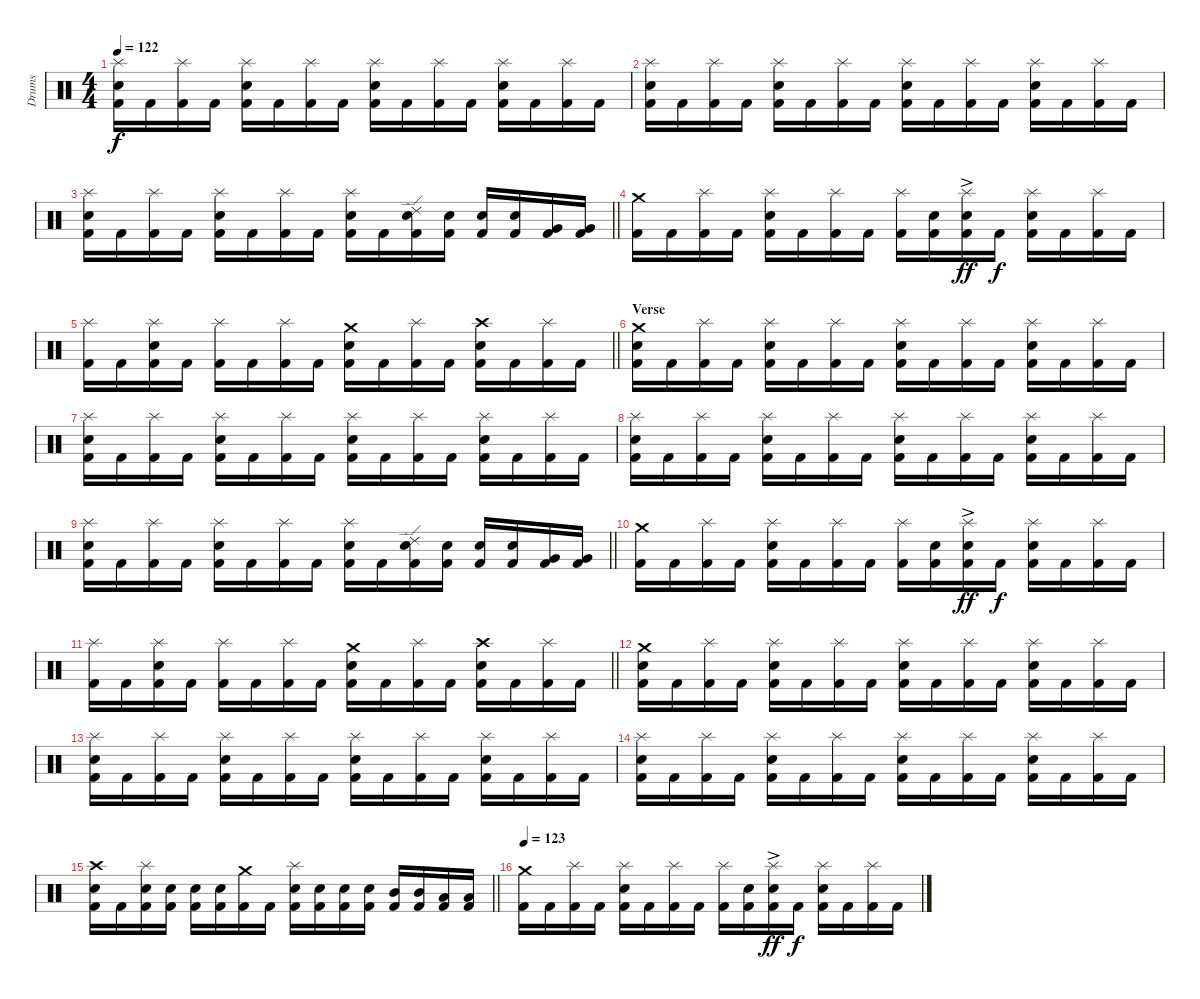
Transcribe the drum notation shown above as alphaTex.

\track ("Drums" "Drums") {instrument percussion}
\staff {score}
\articulation defaults
\ts (4 4)
\tempo 122
\clef neutral
\ks c
("Kick (hit) 2" "Snare (hit) 2" "Splash (hit)").16{dy f} "Kick (hit) 2".16 ("Kick (hit) 2" "Splash (hit)").16 "Kick (hit) 2".16 ("Kick (hit) 2" "Snare (hit) 2" "Splash (hit)").16 "Kick (hit) 2".16 ("Kick (hit) 2" "Splash (hit)").16 "Kick (hit) 2".16 ("Kick (hit) 2" "Snare (hit) 2" "Splash (hit)").16 "Kick (hit) 2".16 ("Kick (hit) 2" "Splash (hit)").16 "Kick (hit) 2".16 ("Kick (hit) 2" "Snare (hit) 2" "Splash (hit)").16 "Kick (hit) 2".16 ("Kick (hit) 2" "Splash (hit)").16 "Kick (hit) 2".16 |
("Kick (hit) 2" "Snare (hit) 2" "Splash (hit)").16 "Kick (hit) 2".16 ("Kick (hit) 2" "Splash (hit)").16 "Kick (hit) 2".16 ("Kick (hit) 2" "Snare (hit) 2" "Splash (hit)").16 "Kick (hit) 2".16 ("Kick (hit) 2" "Splash (hit)").16 "Kick (hit) 2".16 ("Kick (hit) 2" "Snare (hit) 2" "Splash (hit)").16 "Kick (hit) 2".16 ("Kick (hit) 2" "Splash (hit)").16 "Kick (hit) 2".16 ("Kick (hit) 2" "Snare (hit) 2" "Splash (hit)").16 "Kick (hit) 2".16 ("Kick (hit) 2" "Splash (hit)").16 "Kick (hit) 2".16 |
\barLineRight lightlight
("Kick (hit) 2" "Snare (hit) 2" "Splash (hit)").16 "Kick (hit) 2".16 ("Kick (hit) 2" "Splash (hit)").16 "Kick (hit) 2".16 ("Kick (hit) 2" "Snare (hit) 2" "Splash (hit)").16 "Kick (hit) 2".16 ("Kick (hit) 2" "Splash (hit)").16 "Kick (hit) 2".16 ("Kick (hit) 2" "Snare (hit) 2" "Splash (hit)").16 "Kick (hit) 2".16 ("Kick (hit) 2" "Snare (hit) 2" "Ride (edge) 2").16 ("Kick (hit) 2" "Snare (hit) 2").16 ("Kick (hit) 2" "Snare (hit) 2").16 ("Kick (hit) 2" "Snare (hit) 2").16 ("Kick (hit) 2" "Very Low Tom (hit)").16 ("Kick (hit) 2" "Very Low Tom (hit)").16 |
\section ("" "")
("Kick (hit) 2" "Crash medium (hit)").16 "Kick (hit) 2".16 ("Kick (hit) 2" "Splash (hit)").16 "Kick (hit) 2".16 ("Kick (hit) 2" "Snare (hit) 2" "Splash (hit)").16 "Kick (hit) 2".16 ("Kick (hit) 2" "Splash (hit)").16 "Kick (hit) 2".16 ("Kick (hit) 2" "Splash (hit)").16 ("Kick (hit) 2" "Snare (hit) 2").16 ("Kick (hit) 2" "Snare (hit) 2"{ac} "Splash (hit)").16{dy ff} "Kick (hit) 2".16{dy f} ("Kick (hit) 2" "Snare (hit) 2" "Splash (hit)").16 "Kick (hit) 2".16 ("Kick (hit) 2" "Splash (hit)").16 "Kick (hit) 2".16 |
\barLineRight lightlight
("Kick (hit) 2" "Splash (hit)").16 "Kick (hit) 2".16 ("Kick (hit) 2" "Snare (hit) 2" "Splash (hit)").16 "Kick (hit) 2".16 ("Kick (hit) 2" "Splash (hit)").16 "Kick (hit) 2".16 ("Kick (hit) 2" "Splash (hit)").16 "Kick (hit) 2".16 ("Kick (hit) 2" "Snare (hit) 2" "Crash medium (hit)").16 "Kick (hit) 2".16 ("Kick (hit) 2" "Splash (hit)").16 "Kick (hit) 2".16 ("Kick (hit) 2" "Snare (hit) 2" "Crash high (hit)").16 "Kick (hit) 2".16 ("Kick (hit) 2" "Splash (hit)").16 "Kick (hit) 2".16 |
\section ("" "Verse")
("Kick (hit) 2" "Snare (hit) 2" "Crash medium (hit)").16 "Kick (hit) 2".16 ("Kick (hit) 2" "Splash (hit)").16 "Kick (hit) 2".16 ("Kick (hit) 2" "Snare (hit) 2" "Splash (hit)").16 "Kick (hit) 2".16 ("Kick (hit) 2" "Splash (hit)").16 "Kick (hit) 2".16 ("Kick (hit) 2" "Snare (hit) 2" "Splash (hit)").16 "Kick (hit) 2".16 ("Kick (hit) 2" "Splash (hit)").16 "Kick (hit) 2".16 ("Kick (hit) 2" "Snare (hit) 2" "Splash (hit)").16 "Kick (hit) 2".16 ("Kick (hit) 2" "Splash (hit)").16 "Kick (hit) 2".16 |
("Kick (hit) 2" "Snare (hit) 2" "Splash (hit)").16 "Kick (hit) 2".16 ("Kick (hit) 2" "Splash (hit)").16 "Kick (hit) 2".16 ("Kick (hit) 2" "Snare (hit) 2" "Splash (hit)").16 "Kick (hit) 2".16 ("Kick (hit) 2" "Splash (hit)").16 "Kick (hit) 2".16 ("Kick (hit) 2" "Snare (hit) 2" "Splash (hit)").16 "Kick (hit) 2".16 ("Kick (hit) 2" "Splash (hit)").16 "Kick (hit) 2".16 ("Kick (hit) 2" "Snare (hit) 2" "Splash (hit)").16 "Kick (hit) 2".16 ("Kick (hit) 2" "Splash (hit)").16 "Kick (hit) 2".16 |
("Kick (hit) 2" "Snare (hit) 2" "Splash (hit)").16 "Kick (hit) 2".16 ("Kick (hit) 2" "Splash (hit)").16 "Kick (hit) 2".16 ("Kick (hit) 2" "Snare (hit) 2" "Splash (hit)").16 "Kick (hit) 2".16 ("Kick (hit) 2" "Splash (hit)").16 "Kick (hit) 2".16 ("Kick (hit) 2" "Snare (hit) 2" "Splash (hit)").16 "Kick (hit) 2".16 ("Kick (hit) 2" "Splash (hit)").16 "Kick (hit) 2".16 ("Kick (hit) 2" "Snare (hit) 2" "Splash (hit)").16 "Kick (hit) 2".16 ("Kick (hit) 2" "Splash (hit)").16 "Kick (hit) 2".16 |
\barLineRight lightlight
("Kick (hit) 2" "Snare (hit) 2" "Splash (hit)").16 "Kick (hit) 2".16 ("Kick (hit) 2" "Splash (hit)").16 "Kick (hit) 2".16 ("Kick (hit) 2" "Snare (hit) 2" "Splash (hit)").16 "Kick (hit) 2".16 ("Kick (hit) 2" "Splash (hit)").16 "Kick (hit) 2".16 ("Kick (hit) 2" "Snare (hit) 2" "Splash (hit)").16 "Kick (hit) 2".16 ("Kick (hit) 2" "Snare (hit) 2" "Ride (edge) 2").16 ("Kick (hit) 2" "Snare (hit) 2").16 ("Kick (hit) 2" "Snare (hit) 2").16 ("Kick (hit) 2" "Snare (hit) 2").16 ("Kick (hit) 2" "Very Low Tom (hit)").16 ("Kick (hit) 2" "Very Low Tom (hit)").16 |
\section ("" "")
("Kick (hit) 2" "Crash medium (hit)").16 "Kick (hit) 2".16 ("Kick (hit) 2" "Splash (hit)").16 "Kick (hit) 2".16 ("Kick (hit) 2" "Snare (hit) 2" "Splash (hit)").16 "Kick (hit) 2".16 ("Kick (hit) 2" "Splash (hit)").16 "Kick (hit) 2".16 ("Kick (hit) 2" "Splash (hit)").16 ("Kick (hit) 2" "Snare (hit) 2").16 ("Kick (hit) 2" "Snare (hit) 2"{ac} "Splash (hit)").16{dy ff} "Kick (hit) 2".16{dy f} ("Kick (hit) 2" "Snare (hit) 2" "Splash (hit)").16 "Kick (hit) 2".16 ("Kick (hit) 2" "Splash (hit)").16 "Kick (hit) 2".16 |
\barLineRight lightlight
("Kick (hit) 2" "Splash (hit)").16 "Kick (hit) 2".16 ("Kick (hit) 2" "Snare (hit) 2" "Splash (hit)").16 "Kick (hit) 2".16 ("Kick (hit) 2" "Splash (hit)").16 "Kick (hit) 2".16 ("Kick (hit) 2" "Splash (hit)").16 "Kick (hit) 2".16 ("Kick (hit) 2" "Snare (hit) 2" "Crash medium (hit)").16 "Kick (hit) 2".16 ("Kick (hit) 2" "Splash (hit)").16 "Kick (hit) 2".16 ("Kick (hit) 2" "Snare (hit) 2" "Crash high (hit)").16 "Kick (hit) 2".16 ("Kick (hit) 2" "Splash (hit)").16 "Kick (hit) 2".16 |
\section ("" "")
("Kick (hit) 2" "Snare (hit) 2" "Crash medium (hit)").16 "Kick (hit) 2".16 ("Kick (hit) 2" "Splash (hit)").16 "Kick (hit) 2".16 ("Kick (hit) 2" "Snare (hit) 2" "Splash (hit)").16 "Kick (hit) 2".16 ("Kick (hit) 2" "Splash (hit)").16 "Kick (hit) 2".16 ("Kick (hit) 2" "Snare (hit) 2" "Splash (hit)").16 "Kick (hit) 2".16 ("Kick (hit) 2" "Splash (hit)").16 "Kick (hit) 2".16 ("Kick (hit) 2" "Snare (hit) 2" "Splash (hit)").16 "Kick (hit) 2".16 ("Kick (hit) 2" "Splash (hit)").16 "Kick (hit) 2".16 |
("Kick (hit) 2" "Snare (hit) 2" "Splash (hit)").16 "Kick (hit) 2".16 ("Kick (hit) 2" "Splash (hit)").16 "Kick (hit) 2".16 ("Kick (hit) 2" "Snare (hit) 2" "Splash (hit)").16 "Kick (hit) 2".16 ("Kick (hit) 2" "Splash (hit)").16 "Kick (hit) 2".16 ("Kick (hit) 2" "Snare (hit) 2" "Splash (hit)").16 "Kick (hit) 2".16 ("Kick (hit) 2" "Splash (hit)").16 "Kick (hit) 2".16 ("Kick (hit) 2" "Snare (hit) 2" "Splash (hit)").16 "Kick (hit) 2".16 ("Kick (hit) 2" "Splash (hit)").16 "Kick (hit) 2".16 |
("Kick (hit) 2" "Snare (hit) 2" "Splash (hit)").16 "Kick (hit) 2".16 ("Kick (hit) 2" "Splash (hit)").16 "Kick (hit) 2".16 ("Kick (hit) 2" "Snare (hit) 2" "Splash (hit)").16 "Kick (hit) 2".16 ("Kick (hit) 2" "Splash (hit)").16 "Kick (hit) 2".16 ("Kick (hit) 2" "Snare (hit) 2" "Splash (hit)").16 "Kick (hit) 2".16 ("Kick (hit) 2" "Splash (hit)").16 "Kick (hit) 2".16 ("Kick (hit) 2" "Snare (hit) 2" "Splash (hit)").16 "Kick (hit) 2".16 ("Kick (hit) 2" "Splash (hit)").16 "Kick (hit) 2".16 |
\barLineRight lightlight
("Kick (hit) 2" "Snare (hit) 2" "Crash high (hit)").16 "Kick (hit) 2".16 ("Kick (hit) 2" "Snare (hit) 2" "Splash (hit)").16 ("Kick (hit) 2" "Snare (hit) 2").16 ("Kick (hit) 2" "Snare (hit) 2").16 ("Kick (hit) 2" "Snare (hit) 2").16 ("Kick (hit) 2" "Crash medium (hit)").16 "Kick (hit) 2".16 ("Kick (hit) 2" "Snare (hit) 2" "Splash (hit)").16 ("Kick (hit) 2" "Snare (hit) 2").16 ("Kick (hit) 2" "Snare (hit) 2").16 ("Kick (hit) 2" "Snare (hit) 2").16 ("Kick (hit) 2" "Mid Tom (hit)").16 ("Kick (hit) 2" "Mid Tom (hit)").16 ("Kick (hit) 2" "Low Tom (hit)").16 ("Kick (hit) 2" "Low Tom (hit)").16 |
\section ("" "")
\tempo 123
("Kick (hit) 2" "Crash medium (hit)").16 "Kick (hit) 2".16 ("Kick (hit) 2" "Splash (hit)").16 "Kick (hit) 2".16 ("Kick (hit) 2" "Snare (hit) 2" "Splash (hit)").16 "Kick (hit) 2".16 ("Kick (hit) 2" "Splash (hit)").16 "Kick (hit) 2".16 ("Kick (hit) 2" "Splash (hit)").16 ("Kick (hit) 2" "Snare (hit) 2").16 ("Kick (hit) 2" "Snare (hit) 2"{ac} "Splash (hit)").16{dy ff} "Kick (hit) 2".16{dy f} ("Kick (hit) 2" "Snare (hit) 2" "Splash (hit)").16 "Kick (hit) 2".16 ("Kick (hit) 2" "Splash (hit)").16 "Kick (hit) 2".16
